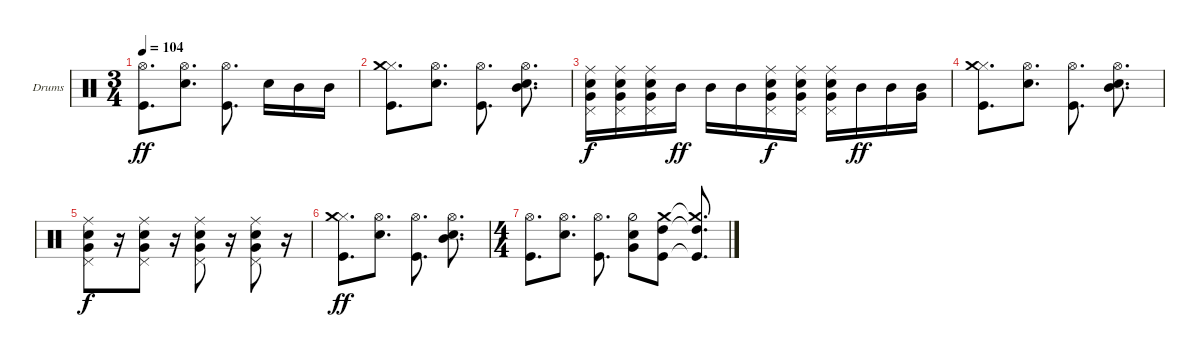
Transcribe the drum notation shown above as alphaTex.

\bracketExtendMode groupsimilarinstruments
\firstSystemTrackNameOrientation horizontal
\otherSystemsTrackNameOrientation horizontal
\track ("Drumkit" "Drums") {instrument percussion}
\staff {score}
\articulation defaults
\ts (3 4)
\tempo 104
\clef neutral
\ks c
("Kick (hit)" "Hi-Hat (open)").8{d dy ff} ("Snare (hit) 2" "Hi-Hat (open)").8{d} ("Kick (hit)" "Hi-Hat (open)").8{d} "Snare (hit) 2".16 "Mid Tom (hit)".16 "Mid Tom (hit)".16 |
("Kick (hit)" "Hi-Hat (closed)" "Crash medium (hit)").8{d} ("Snare (hit) 2" "Hi-Hat (open)").8{d} ("Kick (hit)" "Hi-Hat (open)").8{d} ("Snare (hit) 2" "Hi-Hat (open)" "Mid Tom (hit)").8{d} |
("Pedal Hi-Hat (hit)" "Snare (hit) 2" "Very Low Tom (hit)" "Ride (middle)").16{dy f} ("Pedal Hi-Hat (hit)" "Snare (hit) 2" "Ride (middle)" "Very Low Tom (hit)").16 ("Pedal Hi-Hat (hit)" "Snare (hit) 2" "Ride (middle)" "Very Low Tom (hit)").16 "Mid Tom (hit)".16{dy ff} "Mid Tom (hit)".16 "Mid Tom (hit)".16 ("Pedal Hi-Hat (hit)" "Snare (hit) 2" "Very Low Tom (hit)" "Ride (middle)").16{dy f} ("Pedal Hi-Hat (hit)" "Snare (hit) 2" "Ride (middle)" "Very Low Tom (hit)").16 ("Pedal Hi-Hat (hit)" "Snare (hit) 2" "Ride (middle)" "Very Low Tom (hit)").16 "Mid Tom (hit)".16{dy ff} "Mid Tom (hit)".16 ("Mid Tom (hit)" "Very Low Tom (hit)").16 |
("Kick (hit)" "Hi-Hat (closed)" "Crash medium (hit)").8{d} ("Snare (hit) 2" "Hi-Hat (open)").8{d} ("Kick (hit)" "Hi-Hat (open)").8{d} ("Snare (hit) 2" "Hi-Hat (open)" "Mid Tom (hit)").8{d} |
("Pedal Hi-Hat (hit)" "Snare (hit) 2" "Ride (middle)" "Very Low Tom (hit)").8{dy f} r.16 ("Pedal Hi-Hat (hit)" "Snare (hit) 2" "Ride (middle)" "Very Low Tom (hit)").8 r.16 ("Pedal Hi-Hat (hit)" "Snare (hit) 2" "Ride (middle)" "Very Low Tom (hit)").8 r.16 ("Pedal Hi-Hat (hit)" "Snare (hit) 2" "Ride (middle)" "Very Low Tom (hit)").8 r.16 |
("Kick (hit)" "Hi-Hat (closed)" "Crash medium (hit)").8{d dy ff} ("Snare (hit) 2" "Hi-Hat (open)").8{d} ("Kick (hit)" "Hi-Hat (open)").8{d} ("Snare (hit) 2" "Hi-Hat (open)" "Mid Tom (hit)").8{d} |
\ts (4 4)
("Kick (hit)" "Hi-Hat (open)").8{d} ("Snare (hit) 2" "Hi-Hat (open)").8{d} ("Kick (hit)" "Hi-Hat (open)").8{d} ("Hi-Hat (half)" "Very Low Tom (hit)" "Snare (hit) 2").8 ("Kick (hit)" "High Tom (hit)" "Crash medium (hit)").8 ("Kick (hit)"{t} "High Tom (hit)"{t} "Crash medium (hit)"{t}).8{d}
